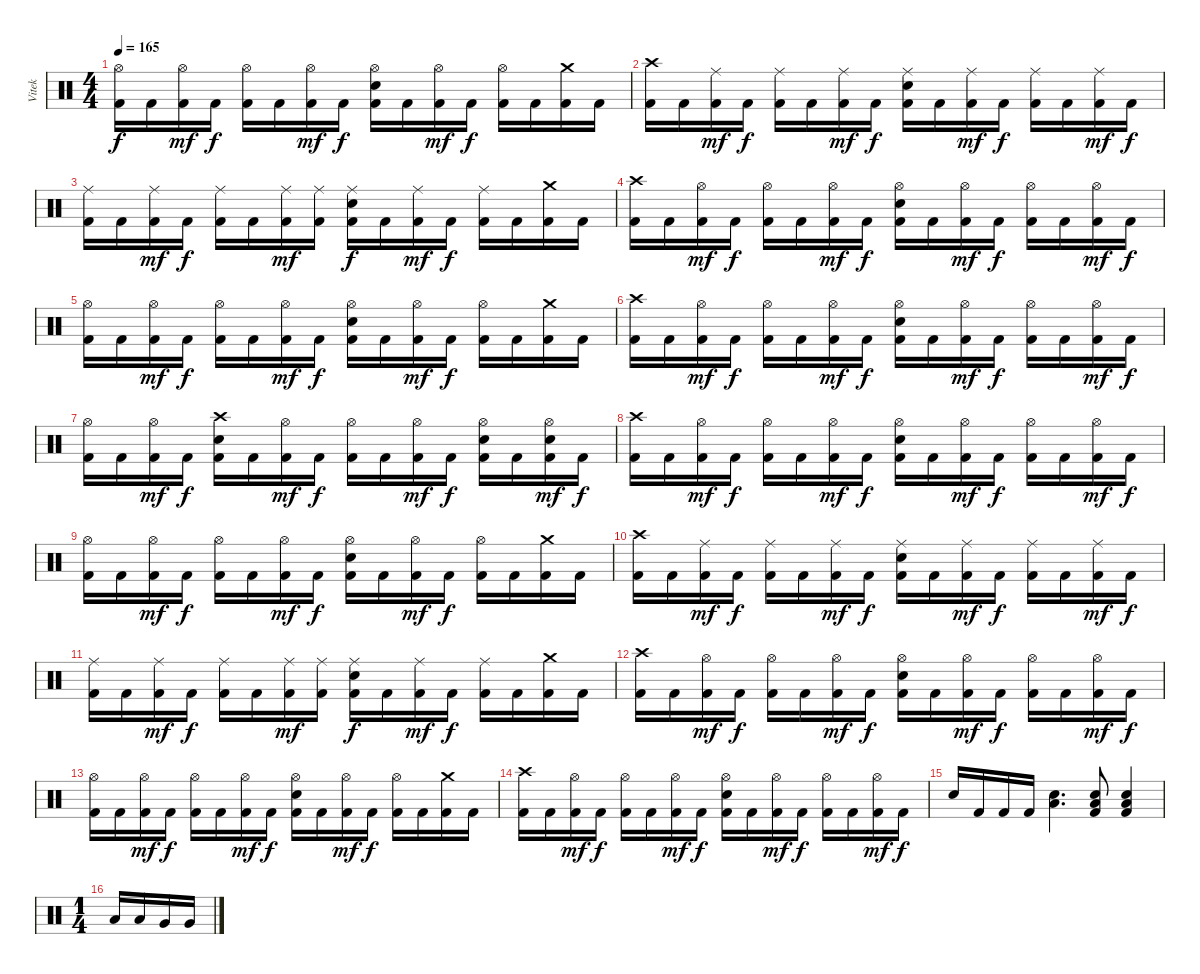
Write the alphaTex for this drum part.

\track ("Vitek" "Vitek") {instrument percussion}
\staff {score}
\articulation defaults
\ts (4 4)
\tempo 165
\clef neutral
\ks c
("Hi-Hat (open)" "Kick (hit) 2").16{dy f} "Kick (hit) 2".16 ("Hi-Hat (open)" "Kick (hit) 2").16{dy mf} "Kick (hit) 2".16{dy f} ("Hi-Hat (open)" "Kick (hit) 2").16 "Kick (hit) 2".16 ("Hi-Hat (open)" "Kick (hit) 2").16{dy mf} "Kick (hit) 2".16{dy f} ("Hi-Hat (open)" "Electric Snare (hit)" "Kick (hit) 2").16 "Kick (hit) 2".16 ("Hi-Hat (open)" "Kick (hit) 2").16{dy mf} "Kick (hit) 2".16{dy f} ("Hi-Hat (open)" "Kick (hit) 2").16 "Kick (hit) 2".16 ("Crash medium (hit)" "Kick (hit) 2").16 "Kick (hit) 2".16 |
("Crash high (hit)" "Kick (hit) 2").16 "Kick (hit) 2".16 ("Ride (middle)" "Kick (hit) 2").16{dy mf} "Kick (hit) 2".16{dy f} ("Ride (middle)" "Kick (hit) 2").16 "Kick (hit) 2".16 ("Ride (middle)" "Kick (hit) 2").16{dy mf} "Kick (hit) 2".16{dy f} ("Ride (middle)" "Electric Snare (hit)" "Kick (hit) 2").16 "Kick (hit) 2".16 ("Ride (middle)" "Kick (hit) 2").16{dy mf} "Kick (hit) 2".16{dy f} ("Ride (middle)" "Kick (hit) 2").16 "Kick (hit) 2".16 ("Ride (middle)" "Kick (hit) 2").16{dy mf} "Kick (hit) 2".16{dy f} |
("Ride (middle)" "Kick (hit) 2").16 "Kick (hit) 2".16 ("Ride (middle)" "Kick (hit) 2").16{dy mf} "Kick (hit) 2".16{dy f} ("Ride (middle)" "Kick (hit) 2").16 "Kick (hit) 2".16 ("Ride (middle)" "Kick (hit) 2").16{dy mf} ("Ride (middle)" "Kick (hit) 2").16 ("Ride (middle)" "Electric Snare (hit)" "Kick (hit) 2").16{dy f} "Kick (hit) 2".16 ("Ride (middle)" "Kick (hit) 2").16{dy mf} "Kick (hit) 2".16{dy f} ("Ride (middle)" "Kick (hit) 2").16 "Kick (hit) 2".16 ("Crash medium (hit)" "Kick (hit) 2").16 "Kick (hit) 2".16 |
("Crash high (hit)" "Kick (hit) 2").16 "Kick (hit) 2".16 ("Hi-Hat (open)" "Kick (hit) 2").16{dy mf} "Kick (hit) 2".16{dy f} ("Hi-Hat (open)" "Kick (hit) 2").16 "Kick (hit) 2".16 ("Hi-Hat (open)" "Kick (hit) 2").16{dy mf} "Kick (hit) 2".16{dy f} ("Hi-Hat (open)" "Electric Snare (hit)" "Kick (hit) 2").16 "Kick (hit) 2".16 ("Hi-Hat (open)" "Kick (hit) 2").16{dy mf} "Kick (hit) 2".16{dy f} ("Hi-Hat (open)" "Kick (hit) 2").16 "Kick (hit) 2".16 ("Hi-Hat (open)" "Kick (hit) 2").16{dy mf} "Kick (hit) 2".16{dy f} |
("Hi-Hat (open)" "Kick (hit) 2").16 "Kick (hit) 2".16 ("Hi-Hat (open)" "Kick (hit) 2").16{dy mf} "Kick (hit) 2".16{dy f} ("Hi-Hat (open)" "Kick (hit) 2").16 "Kick (hit) 2".16 ("Hi-Hat (open)" "Kick (hit) 2").16{dy mf} "Kick (hit) 2".16{dy f} ("Hi-Hat (open)" "Electric Snare (hit)" "Kick (hit) 2").16 "Kick (hit) 2".16 ("Hi-Hat (open)" "Kick (hit) 2").16{dy mf} "Kick (hit) 2".16{dy f} ("Hi-Hat (open)" "Kick (hit) 2").16 "Kick (hit) 2".16 ("Crash medium (hit)" "Kick (hit) 2").16 "Kick (hit) 2".16 |
("Crash high (hit)" "Kick (hit) 2").16 "Kick (hit) 2".16 ("Hi-Hat (open)" "Kick (hit) 2").16{dy mf} "Kick (hit) 2".16{dy f} ("Hi-Hat (open)" "Kick (hit) 2").16 "Kick (hit) 2".16 ("Hi-Hat (open)" "Kick (hit) 2").16{dy mf} "Kick (hit) 2".16{dy f} ("Hi-Hat (open)" "Electric Snare (hit)" "Kick (hit) 2").16 "Kick (hit) 2".16 ("Hi-Hat (open)" "Kick (hit) 2").16{dy mf} "Kick (hit) 2".16{dy f} ("Hi-Hat (open)" "Kick (hit) 2").16 "Kick (hit) 2".16 ("Hi-Hat (open)" "Kick (hit) 2").16{dy mf} "Kick (hit) 2".16{dy f} |
("Hi-Hat (open)" "Kick (hit) 2").16 "Kick (hit) 2".16 ("Hi-Hat (open)" "Kick (hit) 2").16{dy mf} "Kick (hit) 2".16{dy f} ("Crash high (hit)" "Electric Snare (hit)" "Kick (hit) 2").16 "Kick (hit) 2".16 ("Hi-Hat (open)" "Kick (hit) 2").16{dy mf} "Kick (hit) 2".16{dy f} ("Hi-Hat (open)" "Kick (hit) 2").16 "Kick (hit) 2".16 ("Hi-Hat (open)" "Kick (hit) 2").16{dy mf} "Kick (hit) 2".16{dy f} ("Hi-Hat (open)" "Electric Snare (hit)" "Kick (hit) 2").16 "Kick (hit) 2".16 ("Hi-Hat (open)" "Electric Snare (hit)" "Kick (hit) 2").16{dy mf} "Kick (hit) 2".16{dy f} |
("Crash high (hit)" "Kick (hit) 2").16 "Kick (hit) 2".16 ("Hi-Hat (open)" "Kick (hit) 2").16{dy mf} "Kick (hit) 2".16{dy f} ("Hi-Hat (open)" "Kick (hit) 2").16 "Kick (hit) 2".16 ("Hi-Hat (open)" "Kick (hit) 2").16{dy mf} "Kick (hit) 2".16{dy f} ("Hi-Hat (open)" "Electric Snare (hit)" "Kick (hit) 2").16 "Kick (hit) 2".16 ("Hi-Hat (open)" "Kick (hit) 2").16{dy mf} "Kick (hit) 2".16{dy f} ("Hi-Hat (open)" "Kick (hit) 2").16 "Kick (hit) 2".16 ("Hi-Hat (open)" "Kick (hit) 2").16{dy mf} "Kick (hit) 2".16{dy f} |
("Hi-Hat (open)" "Kick (hit) 2").16 "Kick (hit) 2".16 ("Hi-Hat (open)" "Kick (hit) 2").16{dy mf} "Kick (hit) 2".16{dy f} ("Hi-Hat (open)" "Kick (hit) 2").16 "Kick (hit) 2".16 ("Hi-Hat (open)" "Kick (hit) 2").16{dy mf} "Kick (hit) 2".16{dy f} ("Hi-Hat (open)" "Electric Snare (hit)" "Kick (hit) 2").16 "Kick (hit) 2".16 ("Hi-Hat (open)" "Kick (hit) 2").16{dy mf} "Kick (hit) 2".16{dy f} ("Hi-Hat (open)" "Kick (hit) 2").16 "Kick (hit) 2".16 ("Crash medium (hit)" "Kick (hit) 2").16 "Kick (hit) 2".16 |
("Crash high (hit)" "Kick (hit) 2").16 "Kick (hit) 2".16 ("Ride (middle)" "Kick (hit) 2").16{dy mf} "Kick (hit) 2".16{dy f} ("Ride (middle)" "Kick (hit) 2").16 "Kick (hit) 2".16 ("Ride (middle)" "Kick (hit) 2").16{dy mf} "Kick (hit) 2".16{dy f} ("Ride (middle)" "Electric Snare (hit)" "Kick (hit) 2").16 "Kick (hit) 2".16 ("Ride (middle)" "Kick (hit) 2").16{dy mf} "Kick (hit) 2".16{dy f} ("Ride (middle)" "Kick (hit) 2").16 "Kick (hit) 2".16 ("Ride (middle)" "Kick (hit) 2").16{dy mf} "Kick (hit) 2".16{dy f} |
("Ride (middle)" "Kick (hit) 2").16 "Kick (hit) 2".16 ("Ride (middle)" "Kick (hit) 2").16{dy mf} "Kick (hit) 2".16{dy f} ("Ride (middle)" "Kick (hit) 2").16 "Kick (hit) 2".16 ("Ride (middle)" "Kick (hit) 2").16{dy mf} ("Ride (middle)" "Kick (hit) 2").16 ("Ride (middle)" "Electric Snare (hit)" "Kick (hit) 2").16{dy f} "Kick (hit) 2".16 ("Ride (middle)" "Kick (hit) 2").16{dy mf} "Kick (hit) 2".16{dy f} ("Ride (middle)" "Kick (hit) 2").16 "Kick (hit) 2".16 ("Crash medium (hit)" "Kick (hit) 2").16 "Kick (hit) 2".16 |
("Crash high (hit)" "Kick (hit) 2").16 "Kick (hit) 2".16 ("Hi-Hat (open)" "Kick (hit) 2").16{dy mf} "Kick (hit) 2".16{dy f} ("Hi-Hat (open)" "Kick (hit) 2").16 "Kick (hit) 2".16 ("Hi-Hat (open)" "Kick (hit) 2").16{dy mf} "Kick (hit) 2".16{dy f} ("Hi-Hat (open)" "Electric Snare (hit)" "Kick (hit) 2").16 "Kick (hit) 2".16 ("Hi-Hat (open)" "Kick (hit) 2").16{dy mf} "Kick (hit) 2".16{dy f} ("Hi-Hat (open)" "Kick (hit) 2").16 "Kick (hit) 2".16 ("Hi-Hat (open)" "Kick (hit) 2").16{dy mf} "Kick (hit) 2".16{dy f} |
("Hi-Hat (open)" "Kick (hit) 2").16 "Kick (hit) 2".16 ("Hi-Hat (open)" "Kick (hit) 2").16{dy mf} "Kick (hit) 2".16{dy f} ("Hi-Hat (open)" "Kick (hit) 2").16 "Kick (hit) 2".16 ("Hi-Hat (open)" "Kick (hit) 2").16{dy mf} "Kick (hit) 2".16{dy f} ("Hi-Hat (open)" "Electric Snare (hit)" "Kick (hit) 2").16 "Kick (hit) 2".16 ("Hi-Hat (open)" "Kick (hit) 2").16{dy mf} "Kick (hit) 2".16{dy f} ("Hi-Hat (open)" "Kick (hit) 2").16 "Kick (hit) 2".16 ("Crash medium (hit)" "Kick (hit) 2").16 "Kick (hit) 2".16 |
("Crash high (hit)" "Kick (hit) 2").16 "Kick (hit) 2".16 ("Hi-Hat (open)" "Kick (hit) 2").16{dy mf} "Kick (hit) 2".16{dy f} ("Hi-Hat (open)" "Kick (hit) 2").16 "Kick (hit) 2".16 ("Hi-Hat (open)" "Kick (hit) 2").16{dy mf} "Kick (hit) 2".16{dy f} ("Hi-Hat (open)" "Electric Snare (hit)" "Kick (hit) 2").16 "Kick (hit) 2".16 ("Hi-Hat (open)" "Kick (hit) 2").16{dy mf} "Kick (hit) 2".16{dy f} ("Hi-Hat (open)" "Kick (hit) 2").16 "Kick (hit) 2".16 ("Hi-Hat (open)" "Kick (hit) 2").16{dy mf} "Kick (hit) 2".16{dy f} |
"Electric Snare (hit)".16 "Kick (hit) 2".16 "Kick (hit) 2".16 "Kick (hit) 2".16 ("Electric Snare (hit)" "Low Tom (hit)").4{d bu 240} ("Electric Snare (hit)" "Low Tom (hit)" "Kick (hit) 2").8{bu 240} ("Electric Snare (hit)" "Low Tom (hit)" "Kick (hit) 2").4{bu 240} |
\ts (1 4)
"Low Tom (hit)".16 "Low Tom (hit)".16 "Very Low Tom (hit)".16 "Very Low Tom (hit)".16
